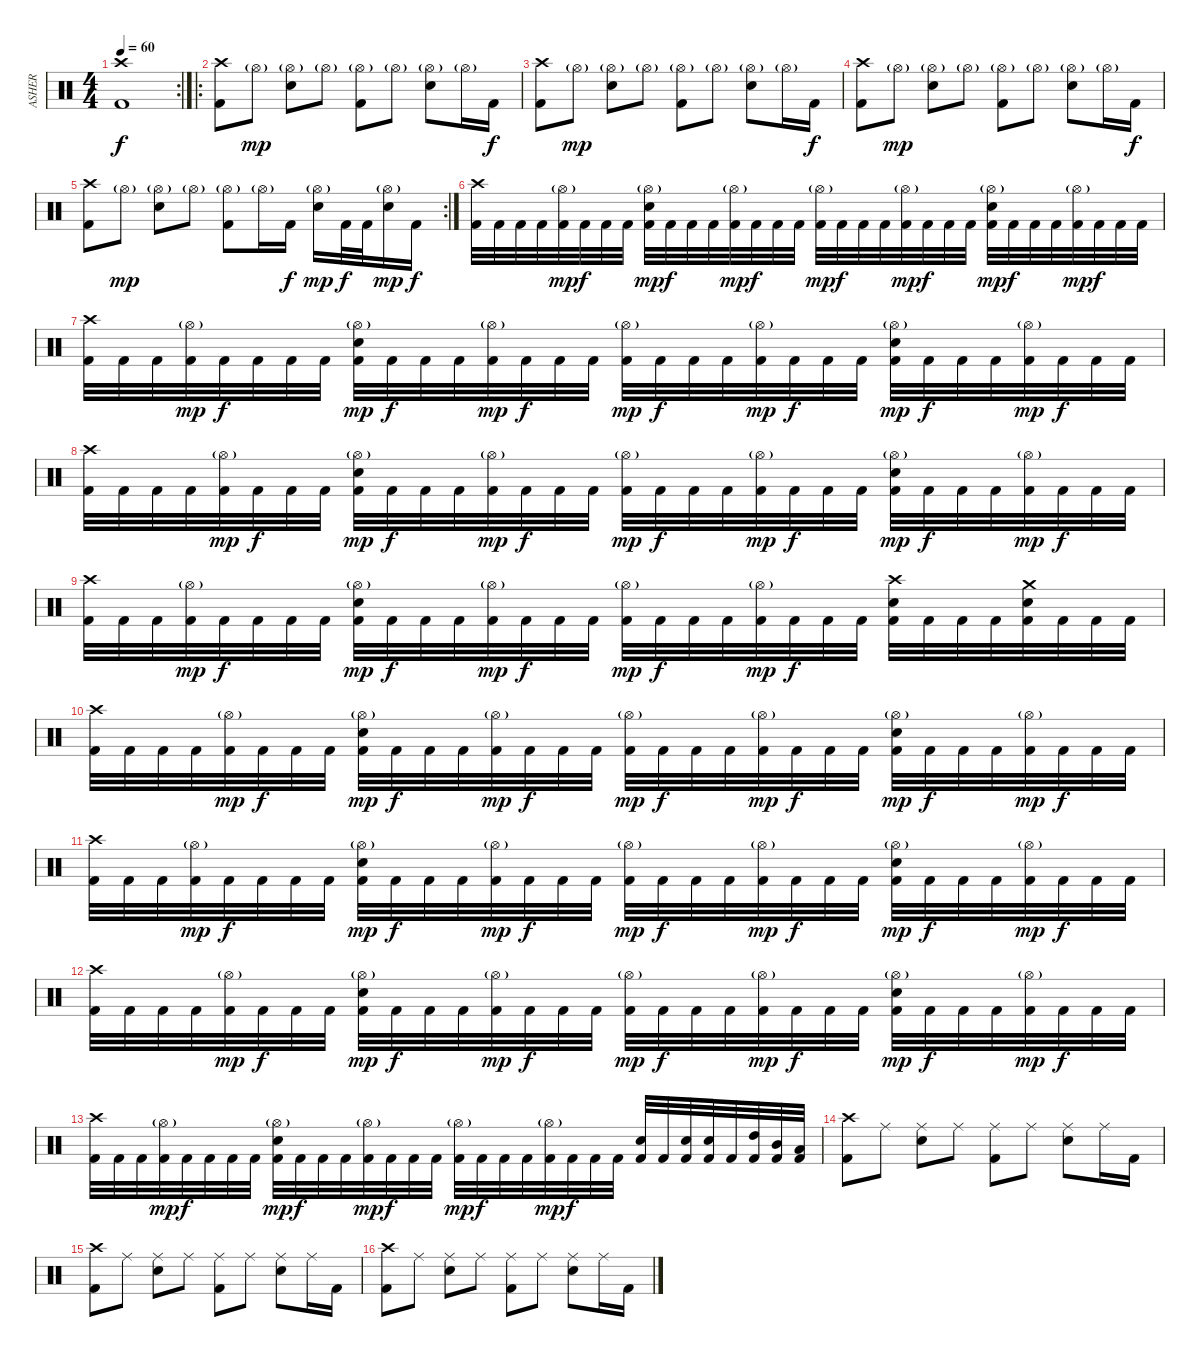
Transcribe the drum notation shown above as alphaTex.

\track ("ASHER" "ASHER") {instrument percussion}
\staff {score}
\articulation defaults
\rc 2
\ts (4 4)
\tempo 60
\clef neutral
\ks c
("Crash high (hit)" "Kick (hit) 2").1{dy f} |
\ro
("Crash high (hit)" "Kick (hit) 2").8 "Hi-Hat (open)"{g}.8{dy mp} ("Hi-Hat (open)"{g} "Electric Snare (hit)").8 "Hi-Hat (open)"{g}.8 ("Hi-Hat (open)"{g} "Kick (hit) 2").8 "Hi-Hat (open)"{g}.8 ("Hi-Hat (open)"{g} "Electric Snare (hit)").8 "Hi-Hat (open)"{g}.16 "Kick (hit) 2".16{dy f} |
("Crash high (hit)" "Kick (hit) 2").8 "Hi-Hat (open)"{g}.8{dy mp} ("Hi-Hat (open)"{g} "Electric Snare (hit)").8 "Hi-Hat (open)"{g}.8 ("Hi-Hat (open)"{g} "Kick (hit) 2").8 "Hi-Hat (open)"{g}.8 ("Hi-Hat (open)"{g} "Electric Snare (hit)").8 "Hi-Hat (open)"{g}.16 "Kick (hit) 2".16{dy f} |
("Crash high (hit)" "Kick (hit) 2").8 "Hi-Hat (open)"{g}.8{dy mp} ("Hi-Hat (open)"{g} "Electric Snare (hit)").8 "Hi-Hat (open)"{g}.8 ("Hi-Hat (open)"{g} "Kick (hit) 2").8 "Hi-Hat (open)"{g}.8 ("Hi-Hat (open)"{g} "Electric Snare (hit)").8 "Hi-Hat (open)"{g}.16 "Kick (hit) 2".16{dy f} |
\rc 2
("Crash high (hit)" "Kick (hit) 2").8 "Hi-Hat (open)"{g}.8{dy mp} ("Hi-Hat (open)"{g} "Electric Snare (hit)").8 "Hi-Hat (open)"{g}.8 ("Hi-Hat (open)"{g} "Kick (hit) 2").8 "Hi-Hat (open)"{g}.16 "Kick (hit) 2".16{dy f} ("Hi-Hat (open)"{g} "Electric Snare (hit)").16{dy mp} "Kick (hit) 2".32{dy f} "Kick (hit) 2".32 ("Hi-Hat (open)"{g} "Electric Snare (hit)").16{dy mp} "Kick (hit) 2".16{dy f} |
("Crash high (hit)" "Kick (hit) 2").32 "Kick (hit) 2".32 "Kick (hit) 2".32 "Kick (hit) 2".32 ("Hi-Hat (open)"{g} "Kick (hit) 2").32{dy mp} "Kick (hit) 2".32{dy f} "Kick (hit) 2".32 "Kick (hit) 2".32 ("Hi-Hat (open)"{g} "Electric Snare (hit)" "Kick (hit) 2").32{dy mp} "Kick (hit) 2".32{dy f} "Kick (hit) 2".32 "Kick (hit) 2".32 ("Hi-Hat (open)"{g} "Kick (hit) 2").32{dy mp} "Kick (hit) 2".32{dy f} "Kick (hit) 2".32 "Kick (hit) 2".32 ("Hi-Hat (open)"{g} "Kick (hit) 2").32{dy mp} "Kick (hit) 2".32{dy f} "Kick (hit) 2".32 "Kick (hit) 2".32 ("Hi-Hat (open)"{g} "Kick (hit) 2").32{dy mp} "Kick (hit) 2".32{dy f} "Kick (hit) 2".32 "Kick (hit) 2".32 ("Hi-Hat (open)"{g} "Electric Snare (hit)" "Kick (hit) 2").32{dy mp} "Kick (hit) 2".32{dy f} "Kick (hit) 2".32 "Kick (hit) 2".32 ("Hi-Hat (open)"{g} "Kick (hit) 2").32{dy mp} "Kick (hit) 2".32{dy f} "Kick (hit) 2".32 "Kick (hit) 2".32 |
("Crash high (hit)" "Kick (hit) 2").32 "Kick (hit) 2".32 "Kick (hit) 2".32 ("Hi-Hat (open)"{g} "Kick (hit) 2").32{dy mp} "Kick (hit) 2".32{dy f} "Kick (hit) 2".32 "Kick (hit) 2".32 "Kick (hit) 2".32 ("Hi-Hat (open)"{g} "Electric Snare (hit)" "Kick (hit) 2").32{dy mp} "Kick (hit) 2".32{dy f} "Kick (hit) 2".32 "Kick (hit) 2".32 ("Hi-Hat (open)"{g} "Kick (hit) 2").32{dy mp} "Kick (hit) 2".32{dy f} "Kick (hit) 2".32 "Kick (hit) 2".32 ("Hi-Hat (open)"{g} "Kick (hit) 2").32{dy mp} "Kick (hit) 2".32{dy f} "Kick (hit) 2".32 "Kick (hit) 2".32 ("Hi-Hat (open)"{g} "Kick (hit) 2").32{dy mp} "Kick (hit) 2".32{dy f} "Kick (hit) 2".32 "Kick (hit) 2".32 ("Hi-Hat (open)"{g} "Electric Snare (hit)" "Kick (hit) 2").32{dy mp} "Kick (hit) 2".32{dy f} "Kick (hit) 2".32 "Kick (hit) 2".32 ("Hi-Hat (open)"{g} "Kick (hit) 2").32{dy mp} "Kick (hit) 2".32{dy f} "Kick (hit) 2".32 "Kick (hit) 2".32 |
("Crash high (hit)" "Kick (hit) 2").32 "Kick (hit) 2".32 "Kick (hit) 2".32 "Kick (hit) 2".32 ("Hi-Hat (open)"{g} "Kick (hit) 2").32{dy mp} "Kick (hit) 2".32{dy f} "Kick (hit) 2".32 "Kick (hit) 2".32 ("Hi-Hat (open)"{g} "Electric Snare (hit)" "Kick (hit) 2").32{dy mp} "Kick (hit) 2".32{dy f} "Kick (hit) 2".32 "Kick (hit) 2".32 ("Hi-Hat (open)"{g} "Kick (hit) 2").32{dy mp} "Kick (hit) 2".32{dy f} "Kick (hit) 2".32 "Kick (hit) 2".32 ("Hi-Hat (open)"{g} "Kick (hit) 2").32{dy mp} "Kick (hit) 2".32{dy f} "Kick (hit) 2".32 "Kick (hit) 2".32 ("Hi-Hat (open)"{g} "Kick (hit) 2").32{dy mp} "Kick (hit) 2".32{dy f} "Kick (hit) 2".32 "Kick (hit) 2".32 ("Hi-Hat (open)"{g} "Electric Snare (hit)" "Kick (hit) 2").32{dy mp} "Kick (hit) 2".32{dy f} "Kick (hit) 2".32 "Kick (hit) 2".32 ("Hi-Hat (open)"{g} "Kick (hit) 2").32{dy mp} "Kick (hit) 2".32{dy f} "Kick (hit) 2".32 "Kick (hit) 2".32 |
("Crash high (hit)" "Kick (hit) 2").32 "Kick (hit) 2".32 "Kick (hit) 2".32 ("Hi-Hat (open)"{g} "Kick (hit) 2").32{dy mp} "Kick (hit) 2".32{dy f} "Kick (hit) 2".32 "Kick (hit) 2".32 "Kick (hit) 2".32 ("Hi-Hat (open)"{g} "Electric Snare (hit)" "Kick (hit) 2").32{dy mp} "Kick (hit) 2".32{dy f} "Kick (hit) 2".32 "Kick (hit) 2".32 ("Hi-Hat (open)"{g} "Kick (hit) 2").32{dy mp} "Kick (hit) 2".32{dy f} "Kick (hit) 2".32 "Kick (hit) 2".32 ("Hi-Hat (open)"{g} "Kick (hit) 2").32{dy mp} "Kick (hit) 2".32{dy f} "Kick (hit) 2".32 "Kick (hit) 2".32 ("Hi-Hat (open)"{g} "Kick (hit) 2").32{dy mp} "Kick (hit) 2".32{dy f} "Kick (hit) 2".32 "Kick (hit) 2".32 ("Crash high (hit)" "Electric Snare (hit)" "Kick (hit) 2").32 "Kick (hit) 2".32 "Kick (hit) 2".32 "Kick (hit) 2".32 ("Crash medium (hit)" "Electric Snare (hit)" "Kick (hit) 2").32 "Kick (hit) 2".32 "Kick (hit) 2".32 "Kick (hit) 2".32 |
("Crash high (hit)" "Kick (hit) 2").32 "Kick (hit) 2".32 "Kick (hit) 2".32 "Kick (hit) 2".32 ("Hi-Hat (open)"{g} "Kick (hit) 2").32{dy mp} "Kick (hit) 2".32{dy f} "Kick (hit) 2".32 "Kick (hit) 2".32 ("Hi-Hat (open)"{g} "Electric Snare (hit)" "Kick (hit) 2").32{dy mp} "Kick (hit) 2".32{dy f} "Kick (hit) 2".32 "Kick (hit) 2".32 ("Hi-Hat (open)"{g} "Kick (hit) 2").32{dy mp} "Kick (hit) 2".32{dy f} "Kick (hit) 2".32 "Kick (hit) 2".32 ("Hi-Hat (open)"{g} "Kick (hit) 2").32{dy mp} "Kick (hit) 2".32{dy f} "Kick (hit) 2".32 "Kick (hit) 2".32 ("Hi-Hat (open)"{g} "Kick (hit) 2").32{dy mp} "Kick (hit) 2".32{dy f} "Kick (hit) 2".32 "Kick (hit) 2".32 ("Hi-Hat (open)"{g} "Electric Snare (hit)" "Kick (hit) 2").32{dy mp} "Kick (hit) 2".32{dy f} "Kick (hit) 2".32 "Kick (hit) 2".32 ("Hi-Hat (open)"{g} "Kick (hit) 2").32{dy mp} "Kick (hit) 2".32{dy f} "Kick (hit) 2".32 "Kick (hit) 2".32 |
("Crash high (hit)" "Kick (hit) 2").32 "Kick (hit) 2".32 "Kick (hit) 2".32 ("Hi-Hat (open)"{g} "Kick (hit) 2").32{dy mp} "Kick (hit) 2".32{dy f} "Kick (hit) 2".32 "Kick (hit) 2".32 "Kick (hit) 2".32 ("Hi-Hat (open)"{g} "Electric Snare (hit)" "Kick (hit) 2").32{dy mp} "Kick (hit) 2".32{dy f} "Kick (hit) 2".32 "Kick (hit) 2".32 ("Hi-Hat (open)"{g} "Kick (hit) 2").32{dy mp} "Kick (hit) 2".32{dy f} "Kick (hit) 2".32 "Kick (hit) 2".32 ("Hi-Hat (open)"{g} "Kick (hit) 2").32{dy mp} "Kick (hit) 2".32{dy f} "Kick (hit) 2".32 "Kick (hit) 2".32 ("Hi-Hat (open)"{g} "Kick (hit) 2").32{dy mp} "Kick (hit) 2".32{dy f} "Kick (hit) 2".32 "Kick (hit) 2".32 ("Hi-Hat (open)"{g} "Electric Snare (hit)" "Kick (hit) 2").32{dy mp} "Kick (hit) 2".32{dy f} "Kick (hit) 2".32 "Kick (hit) 2".32 ("Hi-Hat (open)"{g} "Kick (hit) 2").32{dy mp} "Kick (hit) 2".32{dy f} "Kick (hit) 2".32 "Kick (hit) 2".32 |
("Crash high (hit)" "Kick (hit) 2").32 "Kick (hit) 2".32 "Kick (hit) 2".32 "Kick (hit) 2".32 ("Hi-Hat (open)"{g} "Kick (hit) 2").32{dy mp} "Kick (hit) 2".32{dy f} "Kick (hit) 2".32 "Kick (hit) 2".32 ("Hi-Hat (open)"{g} "Electric Snare (hit)" "Kick (hit) 2").32{dy mp} "Kick (hit) 2".32{dy f} "Kick (hit) 2".32 "Kick (hit) 2".32 ("Hi-Hat (open)"{g} "Kick (hit) 2").32{dy mp} "Kick (hit) 2".32{dy f} "Kick (hit) 2".32 "Kick (hit) 2".32 ("Hi-Hat (open)"{g} "Kick (hit) 2").32{dy mp} "Kick (hit) 2".32{dy f} "Kick (hit) 2".32 "Kick (hit) 2".32 ("Hi-Hat (open)"{g} "Kick (hit) 2").32{dy mp} "Kick (hit) 2".32{dy f} "Kick (hit) 2".32 "Kick (hit) 2".32 ("Hi-Hat (open)"{g} "Electric Snare (hit)" "Kick (hit) 2").32{dy mp} "Kick (hit) 2".32{dy f} "Kick (hit) 2".32 "Kick (hit) 2".32 ("Hi-Hat (open)"{g} "Kick (hit) 2").32{dy mp} "Kick (hit) 2".32{dy f} "Kick (hit) 2".32 "Kick (hit) 2".32 |
("Crash high (hit)" "Kick (hit) 2").32 "Kick (hit) 2".32 "Kick (hit) 2".32 ("Hi-Hat (open)"{g} "Kick (hit) 2").32{dy mp} "Kick (hit) 2".32{dy f} "Kick (hit) 2".32 "Kick (hit) 2".32 "Kick (hit) 2".32 ("Hi-Hat (open)"{g} "Electric Snare (hit)" "Kick (hit) 2").32{dy mp} "Kick (hit) 2".32{dy f} "Kick (hit) 2".32 "Kick (hit) 2".32 ("Hi-Hat (open)"{g} "Kick (hit) 2").32{dy mp} "Kick (hit) 2".32{dy f} "Kick (hit) 2".32 "Kick (hit) 2".32 ("Hi-Hat (open)"{g} "Kick (hit) 2").32{dy mp} "Kick (hit) 2".32{dy f} "Kick (hit) 2".32 "Kick (hit) 2".32 ("Hi-Hat (open)"{g} "Kick (hit) 2").32{dy mp} "Kick (hit) 2".32{dy f} "Kick (hit) 2".32 "Kick (hit) 2".32 ("Electric Snare (hit)" "Kick (hit) 2").32 "Kick (hit) 2".32 ("Electric Snare (hit)" "Kick (hit) 2").32 ("Electric Snare (hit)" "Kick (hit) 2").32 "Kick (hit) 2".32 ("High Tom (hit)" "Kick (hit) 2").32 ("Mid Tom (hit)" "Kick (hit) 2").32 ("Low Tom (hit)" "Kick (hit) 2").32 |
("Crash high (hit)" "Kick (hit) 2").8 "Ride (middle)".8 ("Ride (middle)" "Electric Snare (hit)").8 "Ride (middle)".8 ("Ride (middle)" "Kick (hit) 2").8 "Ride (middle)".8 ("Ride (middle)" "Electric Snare (hit)").8 "Ride (middle)".16 "Kick (hit) 2".16 |
("Crash high (hit)" "Kick (hit) 2").8 "Ride (middle)".8 ("Ride (middle)" "Electric Snare (hit)").8 "Ride (middle)".8 ("Ride (middle)" "Kick (hit) 2").8 "Ride (middle)".8 ("Ride (middle)" "Electric Snare (hit)").8 "Ride (middle)".16 "Kick (hit) 2".16 |
("Crash high (hit)" "Kick (hit) 2").8 "Ride (middle)".8 ("Ride (middle)" "Electric Snare (hit)").8 "Ride (middle)".8 ("Ride (middle)" "Kick (hit) 2").8 "Ride (middle)".8 ("Ride (middle)" "Electric Snare (hit)").8 "Ride (middle)".16 "Kick (hit) 2".16
